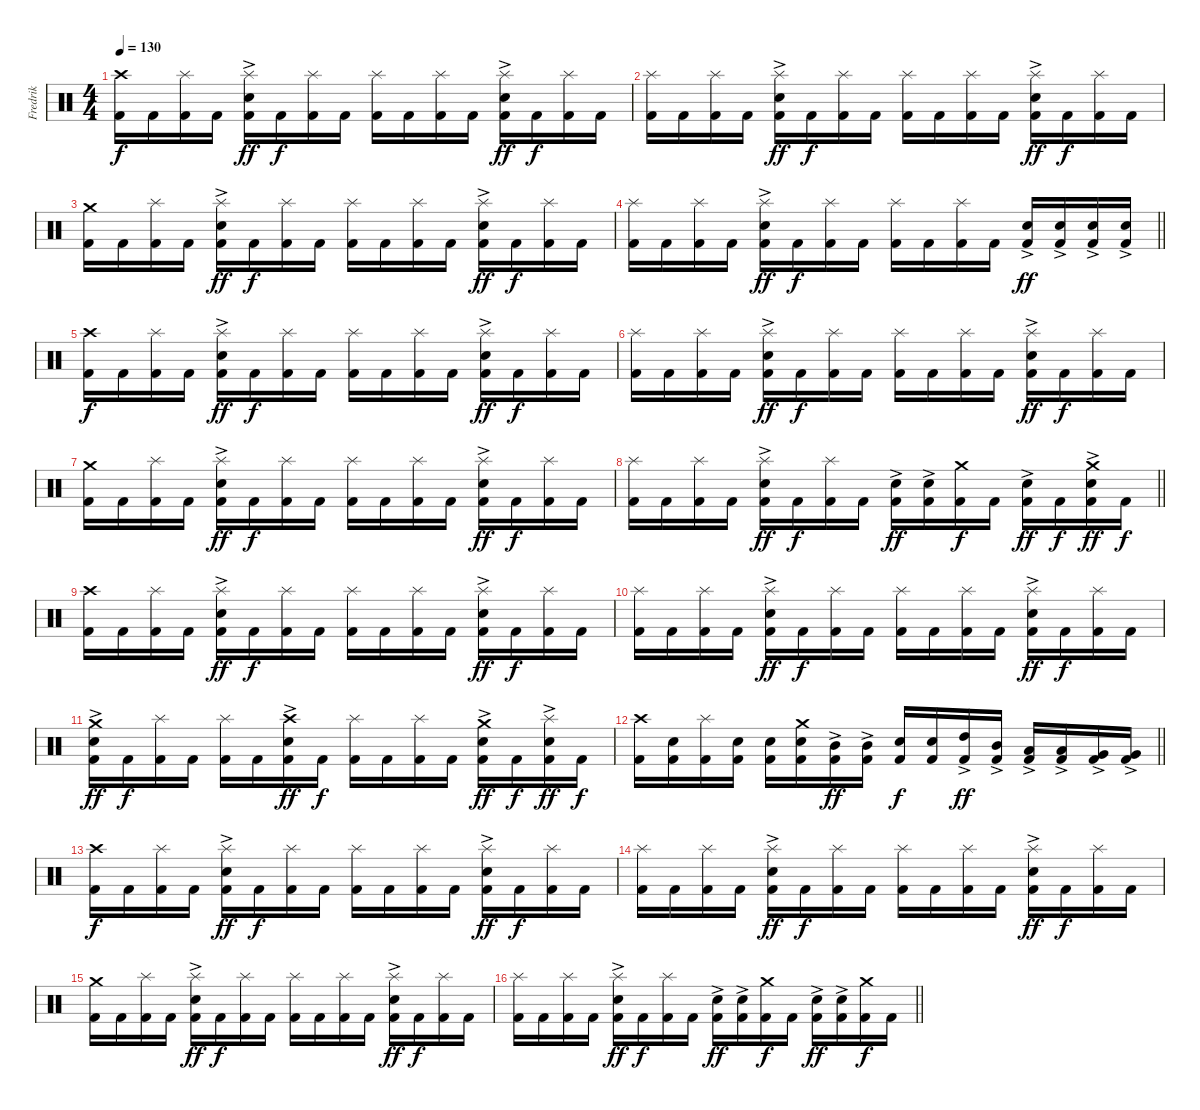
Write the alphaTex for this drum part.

\track ("Fredrik" "Fredrik") {instrument percussion}
\staff {score}
\articulation defaults
\ts (4 4)
\section ("" "")
\tempo 130
\clef neutral
\ks c
("Kick (hit) 2" "Crash high (hit)").16{dy f} "Kick (hit) 2".16 ("Kick (hit) 2" "Splash (hit)").16 "Kick (hit) 2".16 ("Kick (hit) 2" "Snare (hit) 2"{ac} "Splash (hit)").16{dy ff} "Kick (hit) 2".16{dy f} ("Kick (hit) 2" "Splash (hit)").16 "Kick (hit) 2".16 ("Kick (hit) 2" "Splash (hit)").16 "Kick (hit) 2".16 ("Kick (hit) 2" "Splash (hit)").16 "Kick (hit) 2".16 ("Kick (hit) 2" "Snare (hit) 2"{ac} "Splash (hit)").16{dy ff} "Kick (hit) 2".16{dy f} ("Kick (hit) 2" "Splash (hit)").16 "Kick (hit) 2".16 |
("Kick (hit) 2" "Splash (hit)").16 "Kick (hit) 2".16 ("Kick (hit) 2" "Splash (hit)").16 "Kick (hit) 2".16 ("Kick (hit) 2" "Snare (hit) 2"{ac} "Splash (hit)").16{dy ff} "Kick (hit) 2".16{dy f} ("Kick (hit) 2" "Splash (hit)").16 "Kick (hit) 2".16 ("Kick (hit) 2" "Splash (hit)").16 "Kick (hit) 2".16 ("Kick (hit) 2" "Splash (hit)").16 "Kick (hit) 2".16 ("Kick (hit) 2" "Snare (hit) 2"{ac} "Splash (hit)").16{dy ff} "Kick (hit) 2".16{dy f} ("Kick (hit) 2" "Splash (hit)").16 "Kick (hit) 2".16 |
("Kick (hit) 2" "Crash medium (hit)").16 "Kick (hit) 2".16 ("Kick (hit) 2" "Splash (hit)").16 "Kick (hit) 2".16 ("Kick (hit) 2" "Snare (hit) 2"{ac} "Splash (hit)").16{dy ff} "Kick (hit) 2".16{dy f} ("Kick (hit) 2" "Splash (hit)").16 "Kick (hit) 2".16 ("Kick (hit) 2" "Splash (hit)").16 "Kick (hit) 2".16 ("Kick (hit) 2" "Splash (hit)").16 "Kick (hit) 2".16 ("Kick (hit) 2" "Snare (hit) 2"{ac} "Splash (hit)").16{dy ff} "Kick (hit) 2".16{dy f} ("Kick (hit) 2" "Splash (hit)").16 "Kick (hit) 2".16 |
\barLineRight lightlight
("Kick (hit) 2" "Splash (hit)").16 "Kick (hit) 2".16 ("Kick (hit) 2" "Splash (hit)").16 "Kick (hit) 2".16 ("Kick (hit) 2" "Snare (hit) 2"{ac} "Splash (hit)").16{dy ff} "Kick (hit) 2".16{dy f} ("Kick (hit) 2" "Splash (hit)").16 "Kick (hit) 2".16 ("Kick (hit) 2" "Splash (hit)").16 "Kick (hit) 2".16 ("Kick (hit) 2" "Splash (hit)").16 "Kick (hit) 2".16 ("Kick (hit) 2" "Snare (hit) 2"{ac}).16{dy ff} ("Kick (hit) 2" "Snare (hit) 2"{ac}).16 ("Kick (hit) 2" "Snare (hit) 2"{ac}).16 ("Kick (hit) 2" "Snare (hit) 2"{ac}).16 |
\section ("" "")
("Kick (hit) 2" "Crash high (hit)").16{dy f} "Kick (hit) 2".16 ("Kick (hit) 2" "Splash (hit)").16 "Kick (hit) 2".16 ("Kick (hit) 2" "Snare (hit) 2"{ac} "Splash (hit)").16{dy ff} "Kick (hit) 2".16{dy f} ("Kick (hit) 2" "Splash (hit)").16 "Kick (hit) 2".16 ("Kick (hit) 2" "Splash (hit)").16 "Kick (hit) 2".16 ("Kick (hit) 2" "Splash (hit)").16 "Kick (hit) 2".16 ("Kick (hit) 2" "Snare (hit) 2"{ac} "Splash (hit)").16{dy ff} "Kick (hit) 2".16{dy f} ("Kick (hit) 2" "Splash (hit)").16 "Kick (hit) 2".16 |
("Kick (hit) 2" "Splash (hit)").16 "Kick (hit) 2".16 ("Kick (hit) 2" "Splash (hit)").16 "Kick (hit) 2".16 ("Kick (hit) 2" "Snare (hit) 2"{ac} "Splash (hit)").16{dy ff} "Kick (hit) 2".16{dy f} ("Kick (hit) 2" "Splash (hit)").16 "Kick (hit) 2".16 ("Kick (hit) 2" "Splash (hit)").16 "Kick (hit) 2".16 ("Kick (hit) 2" "Splash (hit)").16 "Kick (hit) 2".16 ("Kick (hit) 2" "Snare (hit) 2"{ac} "Splash (hit)").16{dy ff} "Kick (hit) 2".16{dy f} ("Kick (hit) 2" "Splash (hit)").16 "Kick (hit) 2".16 |
("Kick (hit) 2" "Crash medium (hit)").16 "Kick (hit) 2".16 ("Kick (hit) 2" "Splash (hit)").16 "Kick (hit) 2".16 ("Kick (hit) 2" "Snare (hit) 2"{ac} "Splash (hit)").16{dy ff} "Kick (hit) 2".16{dy f} ("Kick (hit) 2" "Splash (hit)").16 "Kick (hit) 2".16 ("Kick (hit) 2" "Splash (hit)").16 "Kick (hit) 2".16 ("Kick (hit) 2" "Splash (hit)").16 "Kick (hit) 2".16 ("Kick (hit) 2" "Snare (hit) 2"{ac} "Splash (hit)").16{dy ff} "Kick (hit) 2".16{dy f} ("Kick (hit) 2" "Splash (hit)").16 "Kick (hit) 2".16 |
\barLineRight lightlight
("Kick (hit) 2" "Splash (hit)").16 "Kick (hit) 2".16 ("Kick (hit) 2" "Splash (hit)").16 "Kick (hit) 2".16 ("Kick (hit) 2" "Snare (hit) 2"{ac} "Splash (hit)").16{dy ff} "Kick (hit) 2".16{dy f} ("Kick (hit) 2" "Splash (hit)").16 "Kick (hit) 2".16 ("Kick (hit) 2" "Snare (hit) 2"{ac}).16{dy ff} ("Kick (hit) 2" "Snare (hit) 2"{ac}).16 ("Kick (hit) 2" "Crash medium (hit)").16{dy f} "Kick (hit) 2".16 ("Kick (hit) 2" "Snare (hit) 2"{ac}).16{dy ff} "Kick (hit) 2".16{dy f} ("Kick (hit) 2" "Snare (hit) 2"{ac} "Crash medium (hit)").16{dy ff} "Kick (hit) 2".16{dy f} |
\section ("" "")
("Kick (hit) 2" "Crash high (hit)").16 "Kick (hit) 2".16 ("Kick (hit) 2" "Splash (hit)").16 "Kick (hit) 2".16 ("Kick (hit) 2" "Snare (hit) 2"{ac} "Splash (hit)").16{dy ff} "Kick (hit) 2".16{dy f} ("Kick (hit) 2" "Splash (hit)").16 "Kick (hit) 2".16 ("Kick (hit) 2" "Splash (hit)").16 "Kick (hit) 2".16 ("Kick (hit) 2" "Splash (hit)").16 "Kick (hit) 2".16 ("Kick (hit) 2" "Snare (hit) 2"{ac} "Splash (hit)").16{dy ff} "Kick (hit) 2".16{dy f} ("Kick (hit) 2" "Splash (hit)").16 "Kick (hit) 2".16 |
("Kick (hit) 2" "Splash (hit)").16 "Kick (hit) 2".16 ("Kick (hit) 2" "Splash (hit)").16 "Kick (hit) 2".16 ("Kick (hit) 2" "Snare (hit) 2"{ac} "Splash (hit)").16{dy ff} "Kick (hit) 2".16{dy f} ("Kick (hit) 2" "Splash (hit)").16 "Kick (hit) 2".16 ("Kick (hit) 2" "Splash (hit)").16 "Kick (hit) 2".16 ("Kick (hit) 2" "Splash (hit)").16 "Kick (hit) 2".16 ("Kick (hit) 2" "Snare (hit) 2"{ac} "Splash (hit)").16{dy ff} "Kick (hit) 2".16{dy f} ("Kick (hit) 2" "Splash (hit)").16 "Kick (hit) 2".16 |
("Kick (hit) 2" "Snare (hit) 2"{ac} "Crash medium (hit)").16{dy ff} "Kick (hit) 2".16{dy f} ("Kick (hit) 2" "Splash (hit)").16 "Kick (hit) 2".16 ("Kick (hit) 2" "Splash (hit)").16 "Kick (hit) 2".16 ("Kick (hit) 2" "Snare (hit) 2"{ac} "Crash high (hit)").16{dy ff} "Kick (hit) 2".16{dy f} ("Kick (hit) 2" "Splash (hit)").16 "Kick (hit) 2".16 ("Kick (hit) 2" "Splash (hit)").16 "Kick (hit) 2".16 ("Kick (hit) 2" "Snare (hit) 2"{ac} "Crash medium (hit)").16{dy ff} "Kick (hit) 2".16{dy f} ("Kick (hit) 2" "Snare (hit) 2"{ac} "Splash (hit)").16{dy ff} "Kick (hit) 2".16{dy f} |
\barLineRight lightlight
("Kick (hit) 2" "Crash high (hit)").16 ("Kick (hit) 2" "Snare (hit) 2").16 ("Kick (hit) 2" "Splash (hit)").16 ("Kick (hit) 2" "Snare (hit) 2").16 ("Kick (hit) 2" "Snare (hit) 2").16 ("Kick (hit) 2" "Snare (hit) 2" "Crash medium (hit)").16 ("Kick (hit) 2" "Mid Tom (hit)"{ac}).16{dy ff} ("Kick (hit) 2" "Mid Tom (hit)"{ac}).16 ("Kick (hit) 2" "Snare (hit) 2").16{dy f} ("Kick (hit) 2" "Snare (hit) 2").16 ("Kick (hit) 2" "High Tom (hit)"{ac}).16{dy ff} ("Kick (hit) 2" "Mid Tom (hit)"{ac}).16 ("Kick (hit) 2" "Low Tom (hit)"{ac}).16 ("Kick (hit) 2" "Low Tom (hit)"{ac}).16 ("Kick (hit) 2" "Very Low Tom (hit)"{ac}).16 ("Kick (hit) 2" "Very Low Tom (hit)"{ac}).16 |
\section ("" "")
("Kick (hit) 2" "Crash high (hit)").16{dy f} "Kick (hit) 2".16 ("Kick (hit) 2" "Splash (hit)").16 "Kick (hit) 2".16 ("Kick (hit) 2" "Snare (hit) 2"{ac} "Splash (hit)").16{dy ff} "Kick (hit) 2".16{dy f} ("Kick (hit) 2" "Splash (hit)").16 "Kick (hit) 2".16 ("Kick (hit) 2" "Splash (hit)").16 "Kick (hit) 2".16 ("Kick (hit) 2" "Splash (hit)").16 "Kick (hit) 2".16 ("Kick (hit) 2" "Snare (hit) 2"{ac} "Splash (hit)").16{dy ff} "Kick (hit) 2".16{dy f} ("Kick (hit) 2" "Splash (hit)").16 "Kick (hit) 2".16 |
("Kick (hit) 2" "Splash (hit)").16 "Kick (hit) 2".16 ("Kick (hit) 2" "Splash (hit)").16 "Kick (hit) 2".16 ("Kick (hit) 2" "Snare (hit) 2"{ac} "Splash (hit)").16{dy ff} "Kick (hit) 2".16{dy f} ("Kick (hit) 2" "Splash (hit)").16 "Kick (hit) 2".16 ("Kick (hit) 2" "Splash (hit)").16 "Kick (hit) 2".16 ("Kick (hit) 2" "Splash (hit)").16 "Kick (hit) 2".16 ("Kick (hit) 2" "Snare (hit) 2"{ac} "Splash (hit)").16{dy ff} "Kick (hit) 2".16{dy f} ("Kick (hit) 2" "Splash (hit)").16 "Kick (hit) 2".16 |
("Kick (hit) 2" "Crash medium (hit)").16 "Kick (hit) 2".16 ("Kick (hit) 2" "Splash (hit)").16 "Kick (hit) 2".16 ("Kick (hit) 2" "Snare (hit) 2"{ac} "Splash (hit)").16{dy ff} "Kick (hit) 2".16{dy f} ("Kick (hit) 2" "Splash (hit)").16 "Kick (hit) 2".16 ("Kick (hit) 2" "Splash (hit)").16 "Kick (hit) 2".16 ("Kick (hit) 2" "Splash (hit)").16 "Kick (hit) 2".16 ("Kick (hit) 2" "Snare (hit) 2"{ac} "Splash (hit)").16{dy ff} "Kick (hit) 2".16{dy f} ("Kick (hit) 2" "Splash (hit)").16 "Kick (hit) 2".16 |
\barLineRight lightlight
("Kick (hit) 2" "Splash (hit)").16 "Kick (hit) 2".16 ("Kick (hit) 2" "Splash (hit)").16 "Kick (hit) 2".16 ("Kick (hit) 2" "Snare (hit) 2"{ac} "Splash (hit)").16{dy ff} "Kick (hit) 2".16{dy f} ("Kick (hit) 2" "Splash (hit)").16 "Kick (hit) 2".16 ("Kick (hit) 2" "Snare (hit) 2"{ac}).16{dy ff} ("Kick (hit) 2" "Snare (hit) 2"{ac}).16 ("Kick (hit) 2" "Crash medium (hit)").16{dy f} "Kick (hit) 2".16 ("Kick (hit) 2" "Snare (hit) 2"{ac}).16{dy ff} ("Kick (hit) 2" "Snare (hit) 2"{ac}).16 ("Kick (hit) 2" "Crash medium (hit)").16{dy f} "Kick (hit) 2".16
